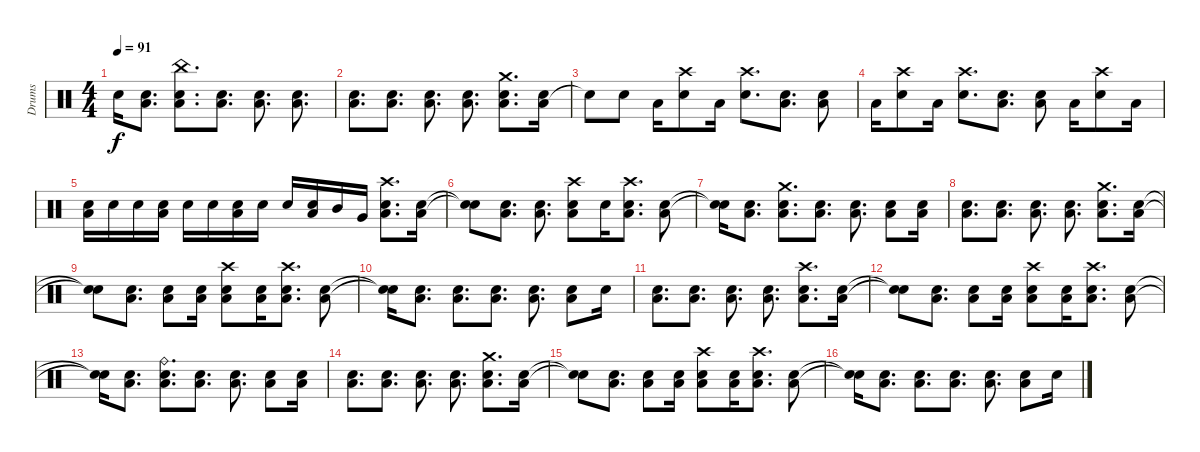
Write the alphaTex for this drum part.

\track ("Drums" "Drums") {instrument percussion}
\staff {score}
\articulation defaults
\ts (4 4)
\tempo 91
\clef neutral
\ks c "Snare (hit)"{t}.16{dy f}
("Low Tom (hit)" "Electric Snare (hit)").8{d} ("China (hit)" "Low Tom (hit)" "Electric Snare (hit)").8{d} ("Low Tom (hit)" "Electric Snare (hit)").8{d} ("Low Tom (hit)" "Electric Snare (hit)").8{d} ("Low Tom (hit)" "Electric Snare (hit)").8{d} |
("Low Tom (hit)" "Electric Snare (hit)").8{d} ("Low Tom (hit)" "Electric Snare (hit)").8{d} ("Low Tom (hit)" "Electric Snare (hit)").8{d} ("Low Tom (hit)" "Electric Snare (hit)").8{d} ("Crash medium (hit)" "Low Tom (hit)" "Electric Snare (hit)").8{d} ("Low Tom (hit)" "Electric Snare (hit)").16 |
"Snare (hit)"{t}.8 "Electric Snare (hit)".8 "Low Tom (hit)".16 ("Crash high (hit)" "Electric Snare (hit)").8 "Low Tom (hit)".16 ("Crash high (hit)" "Electric Snare (hit)").8{d} ("Low Tom (hit)" "Electric Snare (hit)").8{d} ("Low Tom (hit)" "Electric Snare (hit)").8 |
"Low Tom (hit)".16 ("Crash high (hit)" "Electric Snare (hit)").8 "Low Tom (hit)".16 ("Crash high (hit)" "Electric Snare (hit)").8{d} ("Low Tom (hit)" "Electric Snare (hit)").8{d} ("Low Tom (hit)" "Electric Snare (hit)").8 "Low Tom (hit)".16 ("Crash high (hit)" "Electric Snare (hit)").8 "Low Tom (hit)".16 |
("Low Tom (hit)" "Electric Snare (hit)").16 "Electric Snare (hit)".16 "Electric Snare (hit)".16 ("Low Tom (hit)" "Electric Snare (hit)").16 "Electric Snare (hit)".16 "Electric Snare (hit)".16 ("Low Tom (hit)" "Electric Snare (hit)").16 "Electric Snare (hit)".16 "Electric Snare (hit)".16 ("Low Tom (hit)" "Electric Snare (hit)").16 "Mid Tom (hit)".16 "Very Low Tom (hit)".16 ("Crash high (hit)" "Low Tom (hit)" "Electric Snare (hit)").8{d} ("Low Tom (hit)" "Electric Snare (hit)").16 |
("Snare (hit)"{t} "Snare (hit)"{t}).8 ("Low Tom (hit)" "Electric Snare (hit)").8{d} ("Low Tom (hit)" "Electric Snare (hit)").8{d} ("Crash high (hit)" "Low Tom (hit)" "Electric Snare (hit)").8 "Electric Snare (hit)".16 ("Crash high (hit)" "Low Tom (hit)" "Electric Snare (hit)").8{d} ("Low Tom (hit)" "Electric Snare (hit)").8 |
("Snare (hit)"{t} "Snare (hit)"{t}).16 ("Low Tom (hit)" "Electric Snare (hit)").8{d} ("Crash medium (hit)" "Low Tom (hit)" "Electric Snare (hit)").8{d} ("Low Tom (hit)" "Electric Snare (hit)").8{d} ("Low Tom (hit)" "Electric Snare (hit)").8{d} ("Low Tom (hit)" "Electric Snare (hit)").8 ("Low Tom (hit)" "Electric Snare (hit)").16 |
("Low Tom (hit)" "Electric Snare (hit)").8{d} ("Low Tom (hit)" "Electric Snare (hit)").8{d} ("Low Tom (hit)" "Electric Snare (hit)").8{d} ("Low Tom (hit)" "Electric Snare (hit)").8{d} ("Crash medium (hit)" "Low Tom (hit)" "Electric Snare (hit)").8{d} ("Low Tom (hit)" "Electric Snare (hit)").16 |
("Snare (hit)"{t} "Snare (hit)"{t}).8 ("Low Tom (hit)" "Electric Snare (hit)").8{d} ("Low Tom (hit)" "Electric Snare (hit)").8 ("Low Tom (hit)" "Electric Snare (hit)").16 ("Crash high (hit)" "Low Tom (hit)" "Electric Snare (hit)").8 ("Low Tom (hit)" "Electric Snare (hit)").16 ("Crash high (hit)" "Low Tom (hit)" "Electric Snare (hit)").8{d} ("Low Tom (hit)" "Electric Snare (hit)").8 |
("Snare (hit)"{t} "Snare (hit)"{t}).16 ("Low Tom (hit)" "Electric Snare (hit)").8{d} ("Low Tom (hit)" "Electric Snare (hit)").8{d} ("Low Tom (hit)" "Electric Snare (hit)").8{d} ("Low Tom (hit)" "Electric Snare (hit)").8{d} ("Low Tom (hit)" "Electric Snare (hit)").8 "Electric Snare (hit)".16 |
("Low Tom (hit)" "Electric Snare (hit)").8{d} ("Low Tom (hit)" "Electric Snare (hit)").8{d} ("Low Tom (hit)" "Electric Snare (hit)").8{d} ("Low Tom (hit)" "Electric Snare (hit)").8{d} ("Crash high (hit)" "Low Tom (hit)" "Electric Snare (hit)").8{d} ("Low Tom (hit)" "Electric Snare (hit)").16 |
("Snare (hit)"{t} "Snare (hit)"{t}).8 ("Low Tom (hit)" "Electric Snare (hit)").8{d} ("Low Tom (hit)" "Electric Snare (hit)").8 ("Low Tom (hit)" "Electric Snare (hit)").16 ("Crash high (hit)" "Low Tom (hit)" "Electric Snare (hit)").8 ("Low Tom (hit)" "Electric Snare (hit)").16 ("Crash high (hit)" "Low Tom (hit)" "Electric Snare (hit)").8{d} ("Low Tom (hit)" "Electric Snare (hit)").8 |
("Snare (hit)"{t} "Snare (hit)"{t}).16 ("Low Tom (hit)" "Electric Snare (hit)").8{d} ("Ride (bell)" "Low Tom (hit)" "Electric Snare (hit)").8{d} ("Low Tom (hit)" "Electric Snare (hit)").8{d} ("Low Tom (hit)" "Electric Snare (hit)").8{d} ("Low Tom (hit)" "Electric Snare (hit)").8 ("Low Tom (hit)" "Electric Snare (hit)").16 |
("Low Tom (hit)" "Electric Snare (hit)").8{d} ("Low Tom (hit)" "Electric Snare (hit)").8{d} ("Low Tom (hit)" "Electric Snare (hit)").8{d} ("Low Tom (hit)" "Electric Snare (hit)").8{d} ("Crash medium (hit)" "Low Tom (hit)" "Electric Snare (hit)").8{d} ("Low Tom (hit)" "Electric Snare (hit)").16 |
("Snare (hit)"{t} "Snare (hit)"{t}).8 ("Low Tom (hit)" "Electric Snare (hit)").8{d} ("Low Tom (hit)" "Electric Snare (hit)").8 ("Low Tom (hit)" "Electric Snare (hit)").16 ("Crash high (hit)" "Low Tom (hit)" "Electric Snare (hit)").8 ("Low Tom (hit)" "Electric Snare (hit)").16 ("Crash high (hit)" "Low Tom (hit)" "Electric Snare (hit)").8{d} ("Low Tom (hit)" "Electric Snare (hit)").8 |
("Snare (hit)"{t} "Snare (hit)"{t}).16 ("Low Tom (hit)" "Electric Snare (hit)").8{d} ("Low Tom (hit)" "Electric Snare (hit)").8{d} ("Low Tom (hit)" "Electric Snare (hit)").8{d} ("Low Tom (hit)" "Electric Snare (hit)").8{d} ("Low Tom (hit)" "Electric Snare (hit)").8 "Electric Snare (hit)".16
